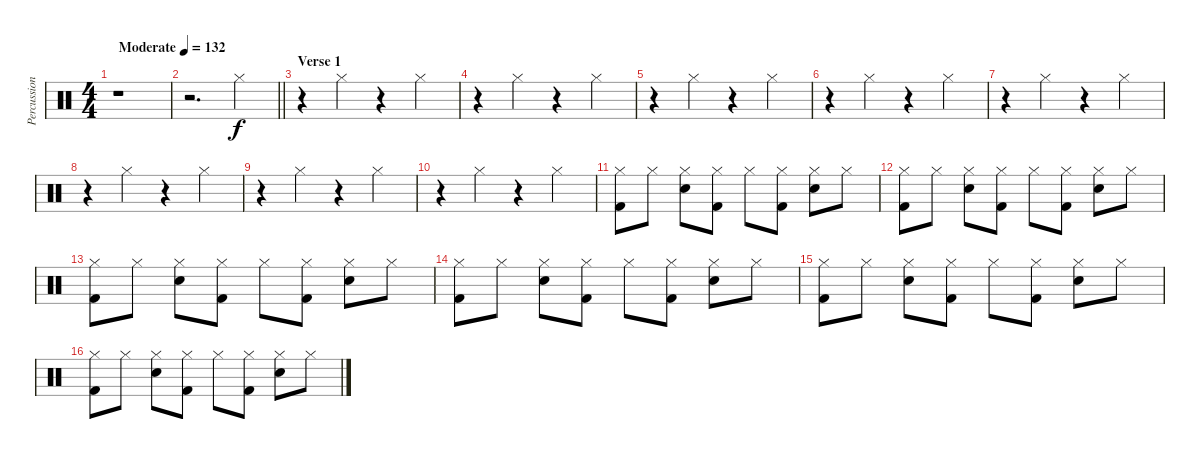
\track ("Percussions" "Percussion") {instrument percussion}
\staff {score}
\articulation defaults
\ts (4 4)
\tempo (132 "Moderate")
\clef neutral
\ks c
r.1{dy f} |
\barLineRight lightlight
r.2{d} "Hi-Hat (closed)".4 |
\section ("" "Verse 1")
r.4 "Hi-Hat (closed)".4 r.4 "Hi-Hat (closed)".4 |
r.4 "Hi-Hat (closed)".4 r.4 "Hi-Hat (closed)".4 |
r.4 "Hi-Hat (closed)".4 r.4 "Hi-Hat (closed)".4 |
r.4 "Hi-Hat (closed)".4 r.4 "Hi-Hat (closed)".4 |
r.4 "Hi-Hat (closed)".4 r.4 "Hi-Hat (closed)".4 |
r.4 "Hi-Hat (closed)".4 r.4 "Hi-Hat (closed)".4 |
r.4 "Hi-Hat (closed)".4 r.4 "Hi-Hat (closed)".4 |
r.4 "Hi-Hat (closed)".4 r.4 "Hi-Hat (closed)".4 |
("Hi-Hat (closed)" "Kick (hit) 2").8 "Hi-Hat (closed)".8 ("Hi-Hat (closed)" "Electric Snare (hit)").8 ("Hi-Hat (closed)" "Kick (hit) 2").8 "Hi-Hat (closed)".8 ("Hi-Hat (closed)" "Kick (hit) 2").8 ("Hi-Hat (closed)" "Electric Snare (hit)").8 "Hi-Hat (closed)".8 |
("Hi-Hat (closed)" "Kick (hit) 2").8 "Hi-Hat (closed)".8 ("Hi-Hat (closed)" "Electric Snare (hit)").8 ("Hi-Hat (closed)" "Kick (hit) 2").8 "Hi-Hat (closed)".8 ("Hi-Hat (closed)" "Kick (hit) 2").8 ("Hi-Hat (closed)" "Electric Snare (hit)").8 "Hi-Hat (closed)".8 |
("Hi-Hat (closed)" "Kick (hit) 2").8 "Hi-Hat (closed)".8 ("Hi-Hat (closed)" "Electric Snare (hit)").8 ("Hi-Hat (closed)" "Kick (hit) 2").8 "Hi-Hat (closed)".8 ("Hi-Hat (closed)" "Kick (hit) 2").8 ("Hi-Hat (closed)" "Electric Snare (hit)").8 "Hi-Hat (closed)".8 |
("Hi-Hat (closed)" "Kick (hit) 2").8 "Hi-Hat (closed)".8 ("Hi-Hat (closed)" "Electric Snare (hit)").8 ("Hi-Hat (closed)" "Kick (hit) 2").8 "Hi-Hat (closed)".8 ("Hi-Hat (closed)" "Kick (hit) 2").8 ("Hi-Hat (closed)" "Electric Snare (hit)").8 "Hi-Hat (closed)".8 |
("Hi-Hat (closed)" "Kick (hit) 2").8 "Hi-Hat (closed)".8 ("Hi-Hat (closed)" "Electric Snare (hit)").8 ("Hi-Hat (closed)" "Kick (hit) 2").8 "Hi-Hat (closed)".8 ("Hi-Hat (closed)" "Kick (hit) 2").8 ("Hi-Hat (closed)" "Electric Snare (hit)").8 "Hi-Hat (closed)".8 |
("Hi-Hat (closed)" "Kick (hit) 2").8 "Hi-Hat (closed)".8 ("Hi-Hat (closed)" "Electric Snare (hit)").8 ("Hi-Hat (closed)" "Kick (hit) 2").8 "Hi-Hat (closed)".8 ("Hi-Hat (closed)" "Kick (hit) 2").8 ("Hi-Hat (closed)" "Electric Snare (hit)").8 "Hi-Hat (closed)".8
